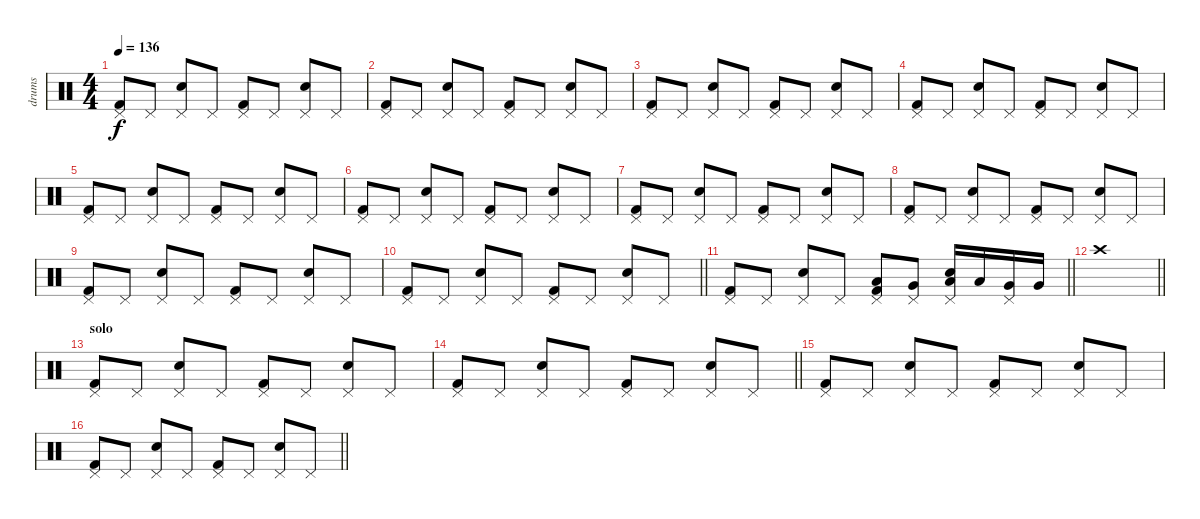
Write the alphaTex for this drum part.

\track ("drums" "drums") {instrument percussion}
\staff {score}
\articulation defaults
\ts (4 4)
\tempo 136
\clef neutral
\ks c
("Kick (hit) 2" "Pedal Hi-Hat (hit)").8{dy f} "Pedal Hi-Hat (hit)".8 ("Electric Snare (hit)" "Pedal Hi-Hat (hit)").8 "Pedal Hi-Hat (hit)".8 ("Kick (hit) 2" "Pedal Hi-Hat (hit)").8 "Pedal Hi-Hat (hit)".8 ("Electric Snare (hit)" "Pedal Hi-Hat (hit)").8 "Pedal Hi-Hat (hit)".8 |
("Kick (hit) 2" "Pedal Hi-Hat (hit)").8 "Pedal Hi-Hat (hit)".8 ("Electric Snare (hit)" "Pedal Hi-Hat (hit)").8 "Pedal Hi-Hat (hit)".8 ("Kick (hit) 2" "Pedal Hi-Hat (hit)").8 "Pedal Hi-Hat (hit)".8 ("Electric Snare (hit)" "Pedal Hi-Hat (hit)").8 "Pedal Hi-Hat (hit)".8 |
("Kick (hit) 2" "Pedal Hi-Hat (hit)").8 "Pedal Hi-Hat (hit)".8 ("Electric Snare (hit)" "Pedal Hi-Hat (hit)").8 "Pedal Hi-Hat (hit)".8 ("Kick (hit) 2" "Pedal Hi-Hat (hit)").8 "Pedal Hi-Hat (hit)".8 ("Electric Snare (hit)" "Pedal Hi-Hat (hit)").8 "Pedal Hi-Hat (hit)".8 |
("Kick (hit) 2" "Pedal Hi-Hat (hit)").8 "Pedal Hi-Hat (hit)".8 ("Electric Snare (hit)" "Pedal Hi-Hat (hit)").8 "Pedal Hi-Hat (hit)".8 ("Kick (hit) 2" "Pedal Hi-Hat (hit)").8 "Pedal Hi-Hat (hit)".8 ("Electric Snare (hit)" "Pedal Hi-Hat (hit)").8 "Pedal Hi-Hat (hit)".8 |
("Kick (hit) 2" "Pedal Hi-Hat (hit)").8 "Pedal Hi-Hat (hit)".8 ("Electric Snare (hit)" "Pedal Hi-Hat (hit)").8 "Pedal Hi-Hat (hit)".8 ("Kick (hit) 2" "Pedal Hi-Hat (hit)").8 "Pedal Hi-Hat (hit)".8 ("Electric Snare (hit)" "Pedal Hi-Hat (hit)").8 "Pedal Hi-Hat (hit)".8 |
("Kick (hit) 2" "Pedal Hi-Hat (hit)").8 "Pedal Hi-Hat (hit)".8 ("Electric Snare (hit)" "Pedal Hi-Hat (hit)").8 "Pedal Hi-Hat (hit)".8 ("Kick (hit) 2" "Pedal Hi-Hat (hit)").8 "Pedal Hi-Hat (hit)".8 ("Electric Snare (hit)" "Pedal Hi-Hat (hit)").8 "Pedal Hi-Hat (hit)".8 |
("Kick (hit) 2" "Pedal Hi-Hat (hit)").8 "Pedal Hi-Hat (hit)".8 ("Electric Snare (hit)" "Pedal Hi-Hat (hit)").8 "Pedal Hi-Hat (hit)".8 ("Kick (hit) 2" "Pedal Hi-Hat (hit)").8 "Pedal Hi-Hat (hit)".8 ("Electric Snare (hit)" "Pedal Hi-Hat (hit)").8 "Pedal Hi-Hat (hit)".8 |
("Kick (hit) 2" "Pedal Hi-Hat (hit)").8 "Pedal Hi-Hat (hit)".8 ("Electric Snare (hit)" "Pedal Hi-Hat (hit)").8 "Pedal Hi-Hat (hit)".8 ("Kick (hit) 2" "Pedal Hi-Hat (hit)").8 "Pedal Hi-Hat (hit)".8 ("Electric Snare (hit)" "Pedal Hi-Hat (hit)").8 "Pedal Hi-Hat (hit)".8 |
("Kick (hit) 2" "Pedal Hi-Hat (hit)").8 "Pedal Hi-Hat (hit)".8 ("Electric Snare (hit)" "Pedal Hi-Hat (hit)").8 "Pedal Hi-Hat (hit)".8 ("Kick (hit) 2" "Pedal Hi-Hat (hit)").8 "Pedal Hi-Hat (hit)".8 ("Electric Snare (hit)" "Pedal Hi-Hat (hit)").8 "Pedal Hi-Hat (hit)".8 |
\barLineRight lightlight
("Kick (hit) 2" "Pedal Hi-Hat (hit)").8 "Pedal Hi-Hat (hit)".8 ("Electric Snare (hit)" "Pedal Hi-Hat (hit)").8 "Pedal Hi-Hat (hit)".8 ("Kick (hit) 2" "Pedal Hi-Hat (hit)").8 "Pedal Hi-Hat (hit)".8 ("Electric Snare (hit)" "Pedal Hi-Hat (hit)").8 "Pedal Hi-Hat (hit)".8 |
\barLineRight lightlight
("Kick (hit) 2" "Pedal Hi-Hat (hit)").8 "Pedal Hi-Hat (hit)".8 ("Electric Snare (hit)" "Pedal Hi-Hat (hit)").8 "Pedal Hi-Hat (hit)".8 ("Kick (hit) 2" "Pedal Hi-Hat (hit)" "Low Tom (hit)").8 ("Pedal Hi-Hat (hit)" "Very Low Tom (hit)").8 ("Electric Snare (hit)" "Pedal Hi-Hat (hit)" "Low Tom (hit)").16 "Low Tom (hit)".16 ("Pedal Hi-Hat (hit)" "Very Low Tom (hit)").16 "Very Low Tom (hit)".16 |
\barLineRight lightlight "Crash high (hit)".1
|
\section ("" "solo")
("Kick (hit) 2" "Pedal Hi-Hat (hit)").8 "Pedal Hi-Hat (hit)".8 ("Electric Snare (hit)" "Pedal Hi-Hat (hit)").8 "Pedal Hi-Hat (hit)".8 ("Kick (hit) 2" "Pedal Hi-Hat (hit)").8 "Pedal Hi-Hat (hit)".8 ("Electric Snare (hit)" "Pedal Hi-Hat (hit)").8 "Pedal Hi-Hat (hit)".8 |
\barLineRight lightlight
("Kick (hit) 2" "Pedal Hi-Hat (hit)").8 "Pedal Hi-Hat (hit)".8 ("Electric Snare (hit)" "Pedal Hi-Hat (hit)").8 "Pedal Hi-Hat (hit)".8 ("Kick (hit) 2" "Pedal Hi-Hat (hit)").8 "Pedal Hi-Hat (hit)".8 ("Electric Snare (hit)" "Pedal Hi-Hat (hit)").8 "Pedal Hi-Hat (hit)".8 |
("Kick (hit) 2" "Pedal Hi-Hat (hit)").8 "Pedal Hi-Hat (hit)".8 ("Electric Snare (hit)" "Pedal Hi-Hat (hit)").8 "Pedal Hi-Hat (hit)".8 ("Kick (hit) 2" "Pedal Hi-Hat (hit)").8 "Pedal Hi-Hat (hit)".8 ("Electric Snare (hit)" "Pedal Hi-Hat (hit)").8 "Pedal Hi-Hat (hit)".8 |
\barLineRight lightlight
("Kick (hit) 2" "Pedal Hi-Hat (hit)").8 "Pedal Hi-Hat (hit)".8 ("Electric Snare (hit)" "Pedal Hi-Hat (hit)").8 "Pedal Hi-Hat (hit)".8 ("Kick (hit) 2" "Pedal Hi-Hat (hit)").8 "Pedal Hi-Hat (hit)".8 ("Electric Snare (hit)" "Pedal Hi-Hat (hit)").8 "Pedal Hi-Hat (hit)".8
